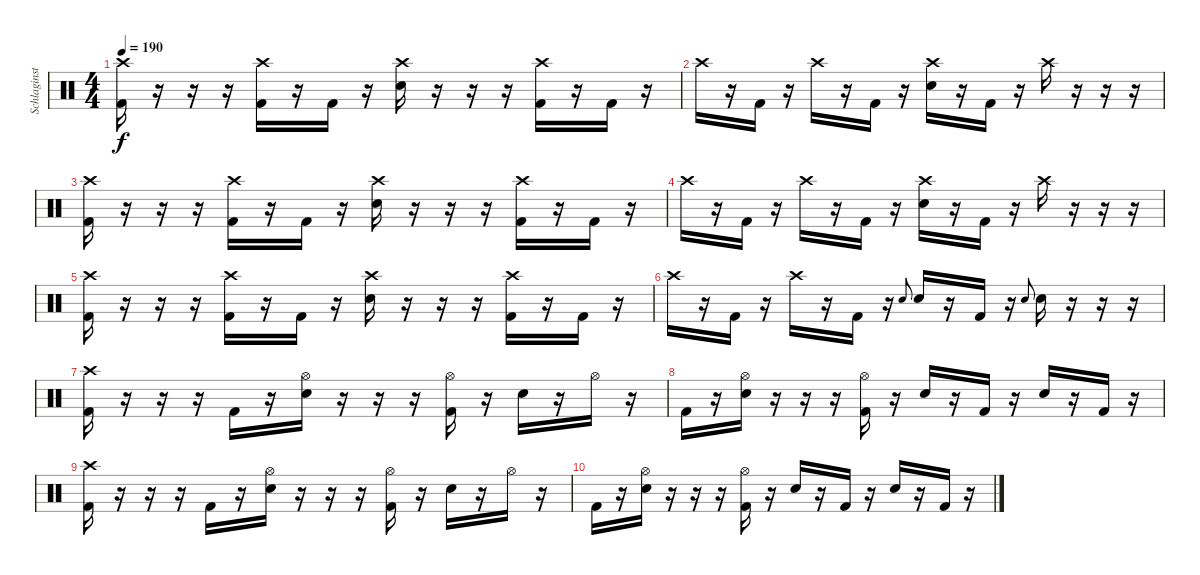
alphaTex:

\track ("Schlaginstrumente - Auswahl" "Schlaginst") {instrument percussion}
\staff {score}
\articulation defaults
\ts (4 4)
\tempo 190
\clef neutral
\ks c
("Crash high (hit)" "Kick (hit) 2").16{dy f} r.16 r.16 r.16 ("Crash high (hit)" "Kick (hit) 2").16 r.16 "Kick (hit) 2".16 r.16 ("Crash high (hit)" "Electric Snare (hit)").16 r.16 r.16 r.16 ("Crash high (hit)" "Kick (hit) 2").16 r.16 "Kick (hit) 2".16 r.16 |
"Crash high (hit)".16 r.16 "Kick (hit) 2".16 r.16 "Crash high (hit)".16 r.16 "Kick (hit) 2".16 r.16 ("Crash high (hit)" "Electric Snare (hit)").16 r.16 "Kick (hit) 2".16 r.16 "Crash high (hit)".16 r.16 r.16 r.16 |
("Crash high (hit)" "Kick (hit) 2").16 r.16 r.16 r.16 ("Crash high (hit)" "Kick (hit) 2").16 r.16 "Kick (hit) 2".16 r.16 ("Crash high (hit)" "Electric Snare (hit)").16 r.16 r.16 r.16 ("Crash high (hit)" "Kick (hit) 2").16 r.16 "Kick (hit) 2".16 r.16 |
"Crash high (hit)".16 r.16 "Kick (hit) 2".16 r.16 "Crash high (hit)".16 r.16 "Kick (hit) 2".16 r.16 ("Crash high (hit)" "Electric Snare (hit)").16 r.16 "Kick (hit) 2".16 r.16 "Crash high (hit)".16 r.16 r.16 r.16 |
("Crash high (hit)" "Kick (hit) 2").16 r.16 r.16 r.16 ("Crash high (hit)" "Kick (hit) 2").16 r.16 "Kick (hit) 2".16 r.16 ("Crash high (hit)" "Electric Snare (hit)").16 r.16 r.16 r.16 ("Crash high (hit)" "Kick (hit) 2").16 r.16 "Kick (hit) 2".16 r.16 |
"Crash high (hit)".16 r.16 "Kick (hit) 2".16 r.16 "Crash high (hit)".16 r.16 "Kick (hit) 2".16 r.16 "Electric Snare (hit)".8{gr onbeat} "Electric Snare (hit)".16 r.16 "Kick (hit) 2".16 r.16 "Electric Snare (hit)".8{gr onbeat} "Electric Snare (hit)".16 r.16 r.16 r.16 |
("Crash high (hit)" "Kick (hit) 2").16 r.16 r.16 r.16 "Kick (hit) 2".16 r.16 ("Hi-Hat (open)" "Electric Snare (hit)").16 r.16 r.16 r.16 ("Hi-Hat (open)" "Kick (hit) 2").16 r.16 "Electric Snare (hit)".16 r.16 "Hi-Hat (open)".16 r.16 |
"Kick (hit) 2".16 r.16 ("Hi-Hat (open)" "Electric Snare (hit)").16 r.16 r.16 r.16 ("Hi-Hat (open)" "Kick (hit) 2").16 r.16 "Electric Snare (hit)".16 r.16 "Kick (hit) 2".16 r.16 "Electric Snare (hit)".16 r.16 "Kick (hit) 2".16 r.16 |
("Crash high (hit)" "Kick (hit) 2").16 r.16 r.16 r.16 "Kick (hit) 2".16 r.16 ("Hi-Hat (open)" "Electric Snare (hit)").16 r.16 r.16 r.16 ("Hi-Hat (open)" "Kick (hit) 2").16 r.16 "Electric Snare (hit)".16 r.16 "Hi-Hat (open)".16 r.16 |
"Kick (hit) 2".16 r.16 ("Hi-Hat (open)" "Electric Snare (hit)").16 r.16 r.16 r.16 ("Hi-Hat (open)" "Kick (hit) 2").16 r.16 "Electric Snare (hit)".16 r.16 "Kick (hit) 2".16 r.16 "Electric Snare (hit)".16 r.16 "Kick (hit) 2".16 r.16
